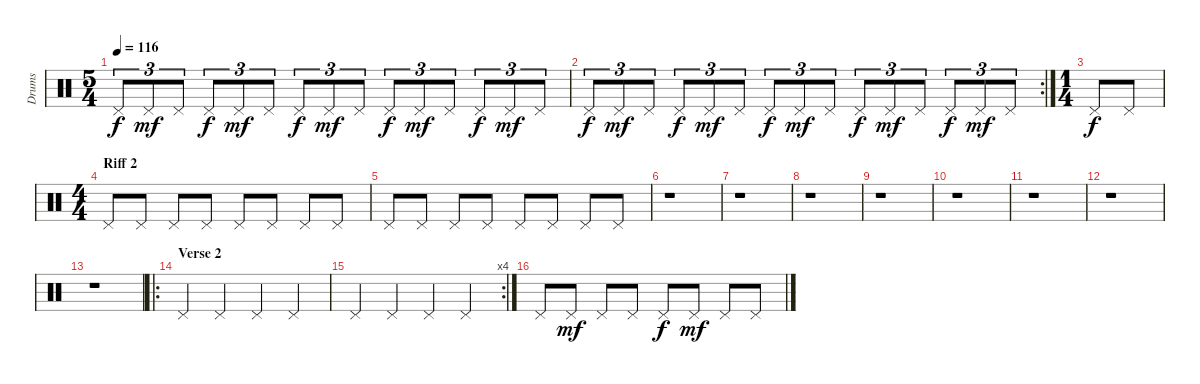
\track ("Drums" "Drums") {instrument percussion}
\staff {score}
\articulation defaults
\ts (5 4)
\tempo 116
\clef neutral
\ks c "Pedal Hi-Hat (hit)".8{tu (3 2) dy f} "Pedal Hi-Hat (hit)".8{tu (3 2) dy mf} "Pedal Hi-Hat (hit)".8{tu (3 2)} "Pedal Hi-Hat (hit)".8{tu (3 2) dy f} "Pedal Hi-Hat (hit)".8{tu (3 2) dy mf} "Pedal Hi-Hat (hit)".8{tu (3 2)} "Pedal Hi-Hat (hit)".8{tu (3 2) dy f} "Pedal Hi-Hat (hit)".8{tu (3 2) dy mf} "Pedal Hi-Hat (hit)".8{tu (3 2)} "Pedal Hi-Hat (hit)".8{tu (3 2) dy f} "Pedal Hi-Hat (hit)".8{tu (3 2) dy mf} "Pedal Hi-Hat (hit)".8{tu (3 2)} "Pedal Hi-Hat (hit)".8{tu (3 2) dy f} "Pedal Hi-Hat (hit)".8{tu (3 2) dy mf} "Pedal Hi-Hat (hit)".8{tu (3 2)}
|
\rc 2 "Pedal Hi-Hat (hit)".8{tu (3 2) dy f} "Pedal Hi-Hat (hit)".8{tu (3 2) dy mf} "Pedal Hi-Hat (hit)".8{tu (3 2)} "Pedal Hi-Hat (hit)".8{tu (3 2) dy f} "Pedal Hi-Hat (hit)".8{tu (3 2) dy mf} "Pedal Hi-Hat (hit)".8{tu (3 2)} "Pedal Hi-Hat (hit)".8{tu (3 2) dy f} "Pedal Hi-Hat (hit)".8{tu (3 2) dy mf} "Pedal Hi-Hat (hit)".8{tu (3 2)} "Pedal Hi-Hat (hit)".8{tu (3 2) dy f} "Pedal Hi-Hat (hit)".8{tu (3 2) dy mf} "Pedal Hi-Hat (hit)".8{tu (3 2)} "Pedal Hi-Hat (hit)".8{tu (3 2) dy f} "Pedal Hi-Hat (hit)".8{tu (3 2) dy mf} "Pedal Hi-Hat (hit)".8{tu (3 2)}
|
\ts (1 4)
"Pedal Hi-Hat (hit)".8{dy f} "Pedal Hi-Hat (hit)".8 |
\ts (4 4)
\section ("" "Riff 2")
"Pedal Hi-Hat (hit)".8 "Pedal Hi-Hat (hit)".8 "Pedal Hi-Hat (hit)".8 "Pedal Hi-Hat (hit)".8 "Pedal Hi-Hat (hit)".8 "Pedal Hi-Hat (hit)".8 "Pedal Hi-Hat (hit)".8 "Pedal Hi-Hat (hit)".8 |
"Pedal Hi-Hat (hit)".8 "Pedal Hi-Hat (hit)".8 "Pedal Hi-Hat (hit)".8 "Pedal Hi-Hat (hit)".8 "Pedal Hi-Hat (hit)".8 "Pedal Hi-Hat (hit)".8 "Pedal Hi-Hat (hit)".8 "Pedal Hi-Hat (hit)".8 |
r.1 |
r.1 |
r.1 |
r.1 |
r.1 |
r.1 |
r.1 |
r.1 |
\ro
\section ("" "Verse 2")
"Pedal Hi-Hat (hit)".4 "Pedal Hi-Hat (hit)".4 "Pedal Hi-Hat (hit)".4 "Pedal Hi-Hat (hit)".4 |
\rc 4 "Pedal Hi-Hat (hit)".4 "Pedal Hi-Hat (hit)".4 "Pedal Hi-Hat (hit)".4 "Pedal Hi-Hat (hit)".4
|
"Pedal Hi-Hat (hit)".8 "Pedal Hi-Hat (hit)".8{dy mf} "Pedal Hi-Hat (hit)".8 "Pedal Hi-Hat (hit)".8 "Pedal Hi-Hat (hit)".8{dy f} "Pedal Hi-Hat (hit)".8{dy mf} "Pedal Hi-Hat (hit)".8 "Pedal Hi-Hat (hit)".8
